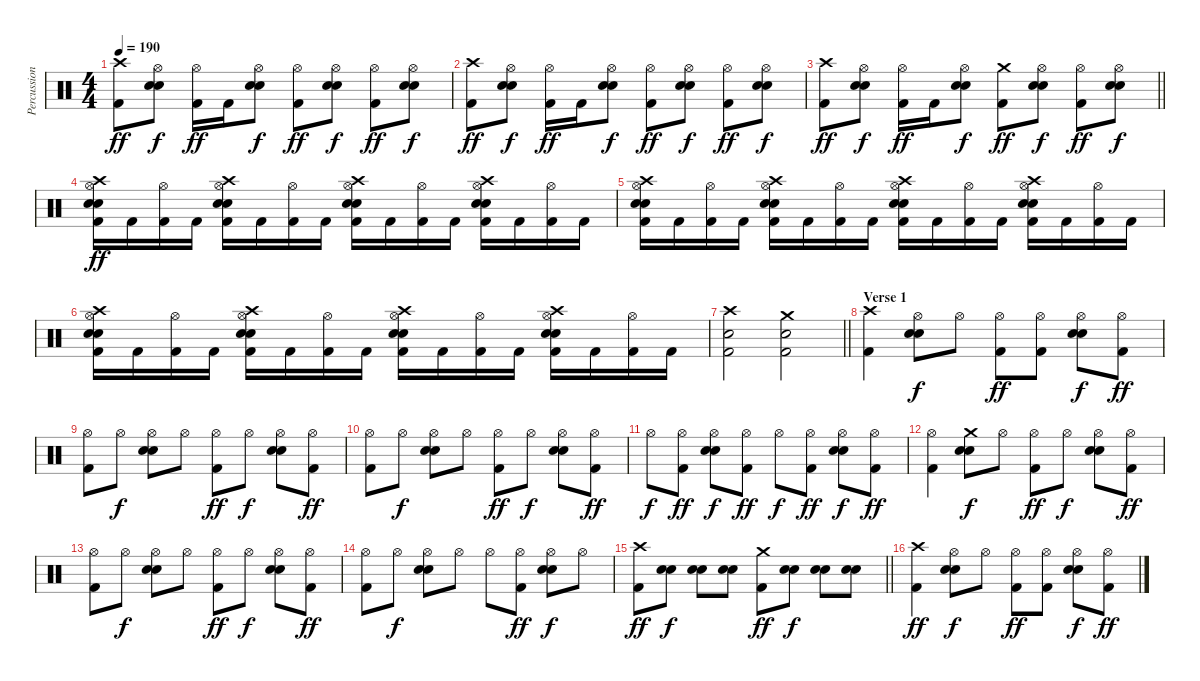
\track ("Percussion" "Percussion") {instrument percussion}
\staff {score}
\articulation defaults
\ts (4 4)
\tempo 190
\clef neutral
\ks c
("Crash high (hit)" "Kick (hit) 2").8{dy ff} ("Hi-Hat (open)" "Electric Snare (hit)" "Snare (hit) 2").8{dy f} ("Hi-Hat (open)" "Kick (hit) 2").16{dy ff} "Kick (hit) 2".16 ("Hi-Hat (open)" "Electric Snare (hit)" "Snare (hit) 2").8{dy f} ("Hi-Hat (open)" "Kick (hit) 2").8{dy ff} ("Hi-Hat (open)" "Electric Snare (hit)" "Snare (hit) 2").8{dy f} ("Hi-Hat (open)" "Kick (hit) 2").8{dy ff} ("Hi-Hat (open)" "Electric Snare (hit)" "Snare (hit) 2").8{dy f} |
("Crash high (hit)" "Kick (hit) 2").8{dy ff} ("Hi-Hat (open)" "Electric Snare (hit)" "Snare (hit) 2").8{dy f} ("Hi-Hat (open)" "Kick (hit) 2").16{dy ff} "Kick (hit) 2".16 ("Hi-Hat (open)" "Electric Snare (hit)" "Snare (hit) 2").8{dy f} ("Hi-Hat (open)" "Kick (hit) 2").8{dy ff} ("Hi-Hat (open)" "Electric Snare (hit)" "Snare (hit) 2").8{dy f} ("Hi-Hat (open)" "Kick (hit) 2").8{dy ff} ("Hi-Hat (open)" "Electric Snare (hit)" "Snare (hit) 2").8{dy f} |
\barLineRight lightlight
("Crash high (hit)" "Kick (hit) 2").8{dy ff} ("Hi-Hat (open)" "Electric Snare (hit)" "Snare (hit) 2").8{dy f} ("Hi-Hat (open)" "Kick (hit) 2").16{dy ff} "Kick (hit) 2".16 ("Hi-Hat (open)" "Electric Snare (hit)" "Snare (hit) 2").8{dy f} ("Crash medium (hit)" "Kick (hit) 2").8{dy ff} ("Hi-Hat (open)" "Electric Snare (hit)" "Snare (hit) 2").8{dy f} ("Hi-Hat (open)" "Kick (hit) 2").8{dy ff} ("Hi-Hat (open)" "Electric Snare (hit)" "Snare (hit) 2").8{dy f} |
("Crash high (hit)" "Hi-Hat (open)" "Electric Snare (hit)" "Snare (hit) 2" "Kick (hit) 2").16{dy ff} "Kick (hit) 2".16 ("Hi-Hat (open)" "Kick (hit) 2").16 "Kick (hit) 2".16 ("Crash high (hit)" "Hi-Hat (open)" "Electric Snare (hit)" "Snare (hit) 2" "Kick (hit) 2").16 "Kick (hit) 2".16 ("Hi-Hat (open)" "Kick (hit) 2").16 "Kick (hit) 2".16 ("Crash high (hit)" "Hi-Hat (open)" "Electric Snare (hit)" "Snare (hit) 2" "Kick (hit) 2").16 "Kick (hit) 2".16 ("Hi-Hat (open)" "Kick (hit) 2").16 "Kick (hit) 2".16 ("Crash high (hit)" "Hi-Hat (open)" "Electric Snare (hit)" "Snare (hit) 2" "Kick (hit) 2").16 "Kick (hit) 2".16 ("Hi-Hat (open)" "Kick (hit) 2").16 "Kick (hit) 2".16 |
("Crash high (hit)" "Hi-Hat (open)" "Electric Snare (hit)" "Snare (hit) 2" "Kick (hit) 2").16 "Kick (hit) 2".16 ("Hi-Hat (open)" "Kick (hit) 2").16 "Kick (hit) 2".16 ("Crash high (hit)" "Hi-Hat (open)" "Electric Snare (hit)" "Snare (hit) 2" "Kick (hit) 2").16 "Kick (hit) 2".16 ("Hi-Hat (open)" "Kick (hit) 2").16 "Kick (hit) 2".16 ("Crash high (hit)" "Hi-Hat (open)" "Electric Snare (hit)" "Snare (hit) 2" "Kick (hit) 2").16 "Kick (hit) 2".16 ("Hi-Hat (open)" "Kick (hit) 2").16 "Kick (hit) 2".16 ("Crash high (hit)" "Hi-Hat (open)" "Electric Snare (hit)" "Snare (hit) 2" "Kick (hit) 2").16 "Kick (hit) 2".16 ("Hi-Hat (open)" "Kick (hit) 2").16 "Kick (hit) 2".16 |
("Crash high (hit)" "Hi-Hat (open)" "Electric Snare (hit)" "Snare (hit) 2" "Kick (hit) 2").16 "Kick (hit) 2".16 ("Hi-Hat (open)" "Kick (hit) 2").16 "Kick (hit) 2".16 ("Crash high (hit)" "Hi-Hat (open)" "Electric Snare (hit)" "Snare (hit) 2" "Kick (hit) 2").16 "Kick (hit) 2".16 ("Hi-Hat (open)" "Kick (hit) 2").16 "Kick (hit) 2".16 ("Crash high (hit)" "Hi-Hat (open)" "Electric Snare (hit)" "Snare (hit) 2" "Kick (hit) 2").16 "Kick (hit) 2".16 ("Hi-Hat (open)" "Kick (hit) 2").16 "Kick (hit) 2".16 ("Crash high (hit)" "Hi-Hat (open)" "Electric Snare (hit)" "Snare (hit) 2" "Kick (hit) 2").16 "Kick (hit) 2".16 ("Hi-Hat (open)" "Kick (hit) 2").16 "Kick (hit) 2".16 |
\barLineRight lightlight
("Crash high (hit)" "Snare (hit) 2" "Kick (hit) 2").2 ("Crash medium (hit)" "Snare (hit) 2" "Kick (hit) 2").2 |
\section ("" "Verse 1")
("Crash high (hit)" "Kick (hit) 2").4 ("Hi-Hat (open)" "Electric Snare (hit)" "Snare (hit) 2").8{dy f} "Hi-Hat (open)".8 ("Hi-Hat (open)" "Kick (hit) 2").8{dy ff} ("Hi-Hat (open)" "Kick (hit) 2").8 ("Hi-Hat (open)" "Electric Snare (hit)" "Snare (hit) 2").8{dy f} ("Hi-Hat (open)" "Kick (hit) 2").8{dy ff} |
("Hi-Hat (open)" "Kick (hit) 2").8 "Hi-Hat (open)".8{dy f} ("Hi-Hat (open)" "Electric Snare (hit)" "Snare (hit) 2").8 "Hi-Hat (open)".8 ("Hi-Hat (open)" "Kick (hit) 2").8{dy ff} "Hi-Hat (open)".8{dy f} ("Hi-Hat (open)" "Electric Snare (hit)" "Snare (hit) 2").8 ("Hi-Hat (open)" "Kick (hit) 2").8{dy ff} |
("Hi-Hat (open)" "Kick (hit) 2").8 "Hi-Hat (open)".8{dy f} ("Hi-Hat (open)" "Electric Snare (hit)" "Snare (hit) 2").8 "Hi-Hat (open)".8 ("Hi-Hat (open)" "Kick (hit) 2").8{dy ff} "Hi-Hat (open)".8{dy f} ("Hi-Hat (open)" "Electric Snare (hit)" "Snare (hit) 2").8 ("Hi-Hat (open)" "Kick (hit) 2").8{dy ff} |
"Hi-Hat (open)".8{dy f} ("Hi-Hat (open)" "Kick (hit) 2").8{dy ff} ("Hi-Hat (open)" "Electric Snare (hit)" "Snare (hit) 2").8{dy f} ("Hi-Hat (open)" "Kick (hit) 2").8{dy ff} "Hi-Hat (open)".8{dy f} ("Hi-Hat (open)" "Kick (hit) 2").8{dy ff} ("Hi-Hat (open)" "Electric Snare (hit)" "Snare (hit) 2").8{dy f} ("Hi-Hat (open)" "Kick (hit) 2").8{dy ff} |
("Hi-Hat (open)" "Kick (hit) 2").4 ("Crash medium (hit)" "Electric Snare (hit)" "Snare (hit) 2").8{dy f} "Hi-Hat (open)".8 ("Hi-Hat (open)" "Kick (hit) 2").8{dy ff} "Hi-Hat (open)".8{dy f} ("Hi-Hat (open)" "Electric Snare (hit)" "Snare (hit) 2").8 ("Hi-Hat (open)" "Kick (hit) 2").8{dy ff} |
("Hi-Hat (open)" "Kick (hit) 2").8 "Hi-Hat (open)".8{dy f} ("Hi-Hat (open)" "Electric Snare (hit)" "Snare (hit) 2").8 "Hi-Hat (open)".8 ("Hi-Hat (open)" "Kick (hit) 2").8{dy ff} "Hi-Hat (open)".8{dy f} ("Hi-Hat (open)" "Electric Snare (hit)" "Snare (hit) 2").8 ("Hi-Hat (open)" "Kick (hit) 2").8{dy ff} |
("Hi-Hat (open)" "Kick (hit) 2").8 "Hi-Hat (open)".8{dy f} ("Hi-Hat (open)" "Electric Snare (hit)" "Snare (hit) 2").8 "Hi-Hat (open)".8 "Hi-Hat (open)".8 ("Hi-Hat (open)" "Kick (hit) 2").8{dy ff} ("Hi-Hat (open)" "Electric Snare (hit)" "Snare (hit) 2").8{dy f} "Hi-Hat (open)".8 |
\barLineRight lightlight
("Crash high (hit)" "Kick (hit) 2").8{dy ff} ("Electric Snare (hit)" "Snare (hit) 2").8{dy f} ("Electric Snare (hit)" "Snare (hit) 2").8 ("Electric Snare (hit)" "Snare (hit) 2").8 ("Crash medium (hit)" "Kick (hit) 2").8{dy ff} ("Electric Snare (hit)" "Snare (hit) 2").8{dy f} ("Electric Snare (hit)" "Snare (hit) 2").8 ("Electric Snare (hit)" "Snare (hit) 2").8 |
("Crash high (hit)" "Kick (hit) 2").4{dy ff} ("Hi-Hat (open)" "Electric Snare (hit)" "Snare (hit) 2").8{dy f} "Hi-Hat (open)".8 ("Hi-Hat (open)" "Kick (hit) 2").8{dy ff} ("Hi-Hat (open)" "Kick (hit) 2").8 ("Hi-Hat (open)" "Electric Snare (hit)" "Snare (hit) 2").8{dy f} ("Hi-Hat (open)" "Kick (hit) 2").8{dy ff}
